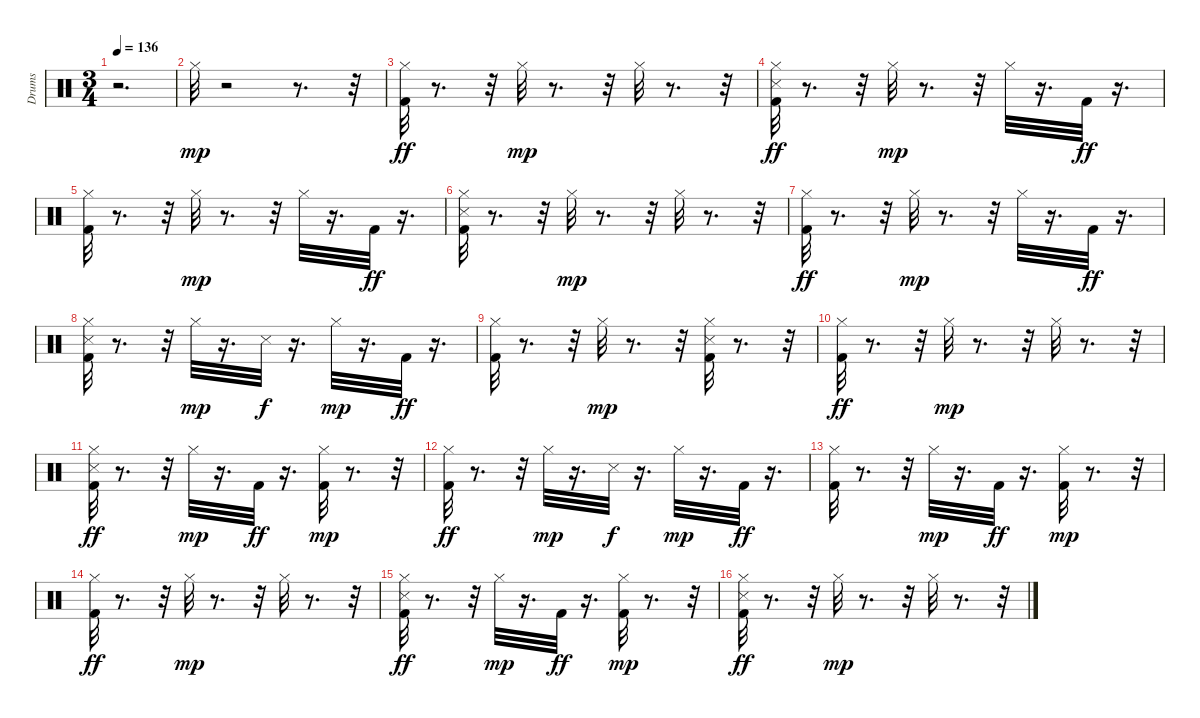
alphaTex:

\track ("Drums  " "Drums  ") {instrument percussion}
\staff {score}
\articulation defaults
\ts (3 4)
\tempo 136
\clef neutral
\ks c
r.2{d dy mp} |
"Hi-Hat (closed)".32 r.2 r.8{d} r.32 |
("Kick (hit) 2" "Hi-Hat (closed)").32{dy ff} r.8{d} r.32 "Hi-Hat (closed)".32{dy mp} r.8{d} r.32 "Hi-Hat (closed)".32 r.8{d} r.32 |
("Kick (hit) 2" "Hi-Hat (closed)" "Snare (side stick) 3").32{dy ff} r.8{d} r.32 "Hi-Hat (closed)".32{dy mp} r.8{d} r.32 "Hi-Hat (closed)".32 r.16{d} "Kick (hit) 2".32{dy ff} r.16{d} |
("Kick (hit) 2" "Hi-Hat (closed)").32 r.8{d} r.32 "Hi-Hat (closed)".32{dy mp} r.8{d} r.32 "Hi-Hat (closed)".32 r.16{d} "Kick (hit) 2".32{dy ff} r.16{d} |
("Kick (hit) 2" "Hi-Hat (closed)" "Snare (side stick) 3").32 r.8{d} r.32 "Hi-Hat (closed)".32{dy mp} r.8{d} r.32 "Hi-Hat (closed)".32 r.8{d} r.32 |
("Kick (hit) 2" "Hi-Hat (closed)").32{dy ff} r.8{d} r.32 "Hi-Hat (closed)".32{dy mp} r.8{d} r.32 "Hi-Hat (closed)".32 r.16{d} "Kick (hit) 2".32{dy ff} r.16{d} |
("Kick (hit) 2" "Hi-Hat (closed)" "Snare (side stick) 3").32 r.8{d} r.32 "Hi-Hat (closed)".32{dy mp} r.16{d} "Snare (side stick) 3".32{dy f} r.16{d} "Hi-Hat (closed)".32{dy mp} r.16{d} "Kick (hit) 2".32{dy ff} r.16{d} |
("Kick (hit) 2" "Hi-Hat (closed)").32 r.8{d} r.32 "Hi-Hat (closed)".32{dy mp} r.8{d} r.32 ("Kick (hit) 2" "Hi-Hat (closed)" "Snare (side stick) 3").32 r.8{d} r.32 |
("Kick (hit) 2" "Hi-Hat (closed)").32{dy ff} r.8{d} r.32 "Hi-Hat (closed)".32{dy mp} r.8{d} r.32 "Hi-Hat (closed)".32 r.8{d} r.32 |
("Kick (hit) 2" "Hi-Hat (closed)" "Snare (side stick) 3").32{dy ff} r.8{d} r.32 "Hi-Hat (closed)".32{dy mp} r.16{d} "Kick (hit) 2".32{dy ff} r.16{d} ("Kick (hit) 2" "Hi-Hat (closed)").32{dy mp} r.8{d} r.32 |
("Kick (hit) 2" "Hi-Hat (closed)").32{dy ff} r.8{d} r.32 "Hi-Hat (closed)".32{dy mp} r.16{d} "Snare (side stick) 3".32{dy f} r.16{d} "Hi-Hat (closed)".32{dy mp} r.16{d} "Kick (hit) 2".32{dy ff} r.16{d} |
("Kick (hit) 2" "Hi-Hat (closed)").32 r.8{d} r.32 "Hi-Hat (closed)".32{dy mp} r.16{d} "Kick (hit) 2".32{dy ff} r.16{d} ("Kick (hit) 2" "Hi-Hat (closed)").32{dy mp} r.8{d} r.32 |
("Kick (hit) 2" "Hi-Hat (closed)").32{dy ff} r.8{d} r.32 "Hi-Hat (closed)".32{dy mp} r.8{d} r.32 "Hi-Hat (closed)".32 r.8{d} r.32 |
("Kick (hit) 2" "Hi-Hat (closed)" "Snare (side stick) 3").32{dy ff} r.8{d} r.32 "Hi-Hat (closed)".32{dy mp} r.16{d} "Kick (hit) 2".32{dy ff} r.16{d} ("Kick (hit) 2" "Hi-Hat (closed)").32{dy mp} r.8{d} r.32 |
("Kick (hit) 2" "Hi-Hat (closed)" "Snare (side stick) 3").32{dy ff} r.8{d} r.32 "Hi-Hat (closed)".32{dy mp} r.8{d} r.32 "Hi-Hat (closed)".32 r.8{d} r.32
